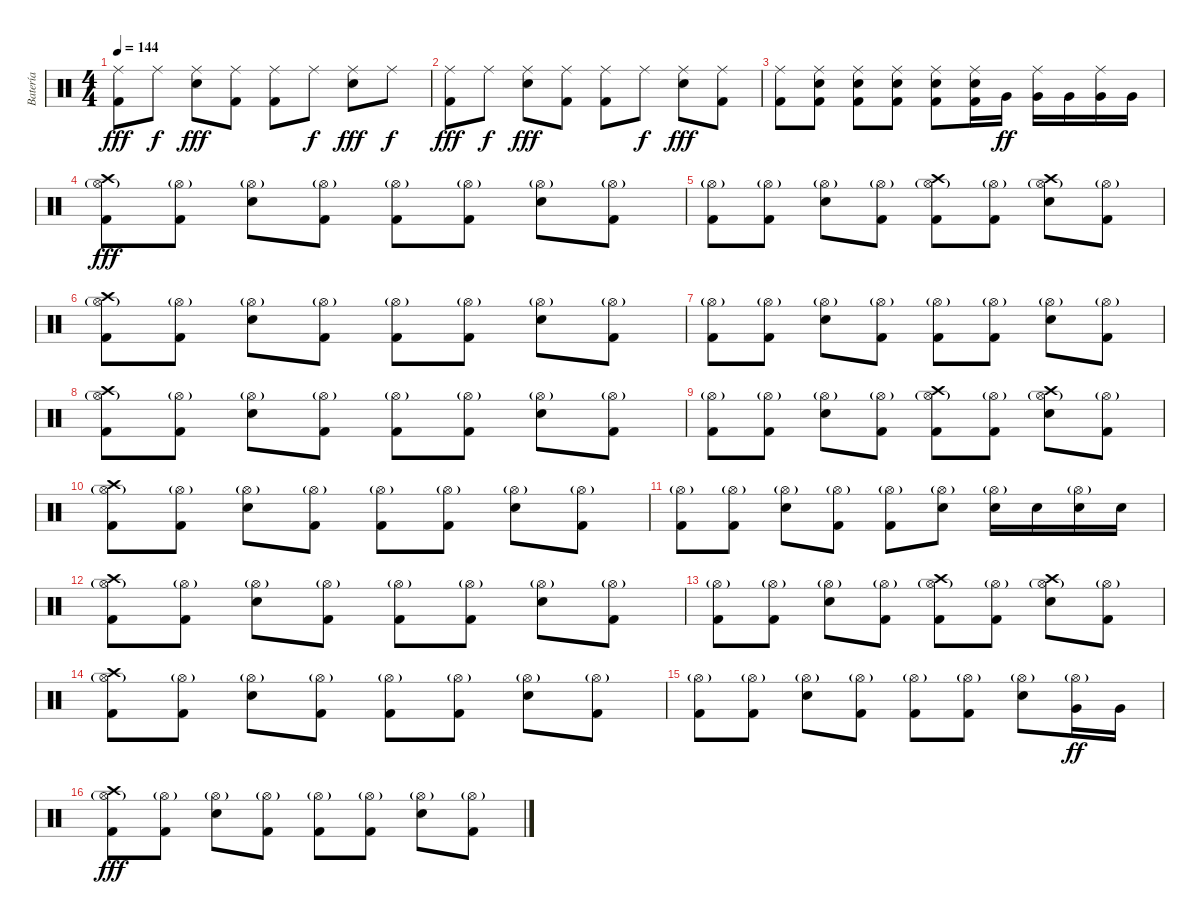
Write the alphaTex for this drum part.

\track ("Batería" "Batería") {instrument percussion}
\staff {score}
\articulation defaults
\ts (4 4)
\tempo 144
\clef neutral
\ks c
("Ride (middle)" "Kick (hit) 2").8{dy fff} "Ride (middle)".8{dy f} ("Ride (middle)" "Electric Snare (hit)").8{dy fff} ("Ride (middle)" "Kick (hit) 2").8 ("Ride (middle)" "Kick (hit) 2").8 "Ride (middle)".8{dy f} ("Ride (middle)" "Electric Snare (hit)").8{dy fff} "Ride (middle)".8{dy f} |
("Ride (middle)" "Kick (hit) 2").8{dy fff} "Ride (middle)".8{dy f} ("Ride (middle)" "Electric Snare (hit)").8{dy fff} ("Ride (middle)" "Kick (hit) 2").8 ("Ride (middle)" "Kick (hit) 2").8 "Ride (middle)".8{dy f} ("Ride (middle)" "Electric Snare (hit)").8{dy fff} ("Ride (middle)" "Kick (hit) 2").8 |
("Ride (middle)" "Kick (hit) 2").8 ("Ride (middle)" "Electric Snare (hit)" "Kick (hit) 2").8 ("Ride (middle)" "Electric Snare (hit)" "Kick (hit) 2").8 ("Ride (middle)" "Electric Snare (hit)" "Kick (hit) 2").8 ("Ride (middle)" "Electric Snare (hit)" "Kick (hit) 2").8 ("Ride (middle)" "Electric Snare (hit)" "Kick (hit) 2").16 "Very Low Tom (hit)".16{dy ff} ("Ride (middle)" "Very Low Tom (hit)").16 "Very Low Tom (hit)".16 ("Ride (middle)" "Very Low Tom (hit)").16 "Very Low Tom (hit)".16 |
("Hi-Hat (open)"{g} "Kick (hit) 2" "Crash high (hit)").8{dy fff} ("Hi-Hat (open)"{g} "Kick (hit) 2").8 ("Hi-Hat (open)"{g} "Electric Snare (hit)").8 ("Hi-Hat (open)"{g} "Kick (hit) 2").8 ("Hi-Hat (open)"{g} "Kick (hit) 2").8 ("Hi-Hat (open)"{g} "Kick (hit) 2").8 ("Hi-Hat (open)"{g} "Electric Snare (hit)").8 ("Hi-Hat (open)"{g} "Kick (hit) 2").8 |
("Hi-Hat (open)"{g} "Kick (hit) 2").8 ("Hi-Hat (open)"{g} "Kick (hit) 2").8 ("Hi-Hat (open)"{g} "Electric Snare (hit)").8 ("Hi-Hat (open)"{g} "Kick (hit) 2").8 ("Hi-Hat (open)"{g} "Kick (hit) 2" "Crash high (hit)").8 ("Hi-Hat (open)"{g} "Kick (hit) 2").8 ("Hi-Hat (open)"{g} "Electric Snare (hit)" "Crash high (hit)").8 ("Hi-Hat (open)"{g} "Kick (hit) 2").8 |
("Hi-Hat (open)"{g} "Kick (hit) 2" "Crash high (hit)").8 ("Hi-Hat (open)"{g} "Kick (hit) 2").8 ("Hi-Hat (open)"{g} "Electric Snare (hit)").8 ("Hi-Hat (open)"{g} "Kick (hit) 2").8 ("Hi-Hat (open)"{g} "Kick (hit) 2").8 ("Hi-Hat (open)"{g} "Kick (hit) 2").8 ("Hi-Hat (open)"{g} "Electric Snare (hit)").8 ("Hi-Hat (open)"{g} "Kick (hit) 2").8 |
("Hi-Hat (open)"{g} "Kick (hit) 2").8 ("Hi-Hat (open)"{g} "Kick (hit) 2").8 ("Hi-Hat (open)"{g} "Electric Snare (hit)").8 ("Hi-Hat (open)"{g} "Kick (hit) 2").8 ("Hi-Hat (open)"{g} "Kick (hit) 2").8 ("Hi-Hat (open)"{g} "Kick (hit) 2").8 ("Hi-Hat (open)"{g} "Electric Snare (hit)").8 ("Hi-Hat (open)"{g} "Kick (hit) 2").8 |
("Hi-Hat (open)"{g} "Kick (hit) 2" "Crash high (hit)").8 ("Hi-Hat (open)"{g} "Kick (hit) 2").8 ("Hi-Hat (open)"{g} "Electric Snare (hit)").8 ("Hi-Hat (open)"{g} "Kick (hit) 2").8 ("Hi-Hat (open)"{g} "Kick (hit) 2").8 ("Hi-Hat (open)"{g} "Kick (hit) 2").8 ("Hi-Hat (open)"{g} "Electric Snare (hit)").8 ("Hi-Hat (open)"{g} "Kick (hit) 2").8 |
("Hi-Hat (open)"{g} "Kick (hit) 2").8 ("Hi-Hat (open)"{g} "Kick (hit) 2").8 ("Hi-Hat (open)"{g} "Electric Snare (hit)").8 ("Hi-Hat (open)"{g} "Kick (hit) 2").8 ("Hi-Hat (open)"{g} "Kick (hit) 2" "Crash high (hit)").8 ("Hi-Hat (open)"{g} "Kick (hit) 2").8 ("Hi-Hat (open)"{g} "Electric Snare (hit)" "Crash high (hit)").8 ("Hi-Hat (open)"{g} "Kick (hit) 2").8 |
("Hi-Hat (open)"{g} "Kick (hit) 2" "Crash high (hit)").8 ("Hi-Hat (open)"{g} "Kick (hit) 2").8 ("Hi-Hat (open)"{g} "Electric Snare (hit)").8 ("Hi-Hat (open)"{g} "Kick (hit) 2").8 ("Hi-Hat (open)"{g} "Kick (hit) 2").8 ("Hi-Hat (open)"{g} "Kick (hit) 2").8 ("Hi-Hat (open)"{g} "Electric Snare (hit)").8 ("Hi-Hat (open)"{g} "Kick (hit) 2").8 |
("Hi-Hat (open)"{g} "Kick (hit) 2").8 ("Hi-Hat (open)"{g} "Kick (hit) 2").8 ("Hi-Hat (open)"{g} "Electric Snare (hit)").8 ("Hi-Hat (open)"{g} "Kick (hit) 2").8 ("Hi-Hat (open)"{g} "Kick (hit) 2").8 ("Hi-Hat (open)"{g} "Electric Snare (hit)").8 ("Hi-Hat (open)"{g} "Electric Snare (hit)").16 "Electric Snare (hit)".16 ("Hi-Hat (open)"{g} "Electric Snare (hit)").16 "Electric Snare (hit)".16 |
("Hi-Hat (open)"{g} "Kick (hit) 2" "Crash high (hit)").8 ("Hi-Hat (open)"{g} "Kick (hit) 2").8 ("Hi-Hat (open)"{g} "Electric Snare (hit)").8 ("Hi-Hat (open)"{g} "Kick (hit) 2").8 ("Hi-Hat (open)"{g} "Kick (hit) 2").8 ("Hi-Hat (open)"{g} "Kick (hit) 2").8 ("Hi-Hat (open)"{g} "Electric Snare (hit)").8 ("Hi-Hat (open)"{g} "Kick (hit) 2").8 |
("Hi-Hat (open)"{g} "Kick (hit) 2").8 ("Hi-Hat (open)"{g} "Kick (hit) 2").8 ("Hi-Hat (open)"{g} "Electric Snare (hit)").8 ("Hi-Hat (open)"{g} "Kick (hit) 2").8 ("Hi-Hat (open)"{g} "Kick (hit) 2" "Crash high (hit)").8 ("Hi-Hat (open)"{g} "Kick (hit) 2").8 ("Hi-Hat (open)"{g} "Electric Snare (hit)" "Crash high (hit)").8 ("Hi-Hat (open)"{g} "Kick (hit) 2").8 |
("Hi-Hat (open)"{g} "Kick (hit) 2" "Crash high (hit)").8 ("Hi-Hat (open)"{g} "Kick (hit) 2").8 ("Hi-Hat (open)"{g} "Electric Snare (hit)").8 ("Hi-Hat (open)"{g} "Kick (hit) 2").8 ("Hi-Hat (open)"{g} "Kick (hit) 2").8 ("Hi-Hat (open)"{g} "Kick (hit) 2").8 ("Hi-Hat (open)"{g} "Electric Snare (hit)").8 ("Hi-Hat (open)"{g} "Kick (hit) 2").8 |
("Hi-Hat (open)"{g} "Kick (hit) 2").8 ("Hi-Hat (open)"{g} "Kick (hit) 2").8 ("Hi-Hat (open)"{g} "Electric Snare (hit)").8 ("Hi-Hat (open)"{g} "Kick (hit) 2").8 ("Hi-Hat (open)"{g} "Kick (hit) 2").8 ("Hi-Hat (open)"{g} "Kick (hit) 2").8 ("Hi-Hat (open)"{g} "Electric Snare (hit)").8 ("Hi-Hat (open)"{g} "Very Low Tom (hit)").16{dy ff} "Very Low Tom (hit)".16 |
("Hi-Hat (open)"{g} "Kick (hit) 2" "Crash high (hit)").8{dy fff} ("Hi-Hat (open)"{g} "Kick (hit) 2").8 ("Hi-Hat (open)"{g} "Electric Snare (hit)").8 ("Hi-Hat (open)"{g} "Kick (hit) 2").8 ("Hi-Hat (open)"{g} "Kick (hit) 2").8 ("Hi-Hat (open)"{g} "Kick (hit) 2").8 ("Hi-Hat (open)"{g} "Electric Snare (hit)").8 ("Hi-Hat (open)"{g} "Kick (hit) 2").8
